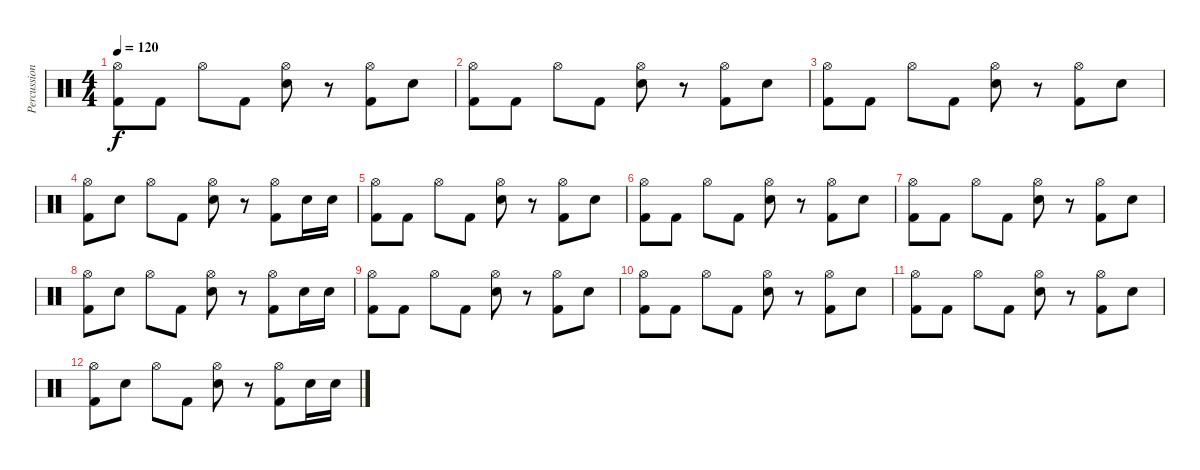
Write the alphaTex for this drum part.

\track ("Percussion" "Percussion") {instrument percussion}
\staff {score}
\articulation defaults
\ts (4 4)
\tempo 120
\clef neutral
\ks c
("Hi-Hat (open)" "Kick (hit) 2").8{dy f volume 13} "Kick (hit) 2".8 "Hi-Hat (open)".8 "Kick (hit) 2".8 ("Hi-Hat (open)" "Snare (hit) 2").8 r.8 ("Hi-Hat (open)" "Kick (hit) 2").8 "Snare (hit) 2".8 |
("Hi-Hat (open)" "Kick (hit) 2").8 "Kick (hit) 2".8 "Hi-Hat (open)".8 "Kick (hit) 2".8 ("Hi-Hat (open)" "Snare (hit) 2").8 r.8 ("Hi-Hat (open)" "Kick (hit) 2").8 "Snare (hit) 2".8 |
("Hi-Hat (open)" "Kick (hit) 2").8 "Kick (hit) 2".8 "Hi-Hat (open)".8 "Kick (hit) 2".8 ("Hi-Hat (open)" "Snare (hit) 2").8 r.8 ("Hi-Hat (open)" "Kick (hit) 2").8 "Snare (hit) 2".8 |
("Hi-Hat (open)" "Kick (hit) 2").8 "Snare (hit) 2".8 "Hi-Hat (open)".8 "Kick (hit) 2".8 ("Hi-Hat (open)" "Snare (hit) 2").8 r.8 ("Hi-Hat (open)" "Kick (hit) 2").8 "Snare (hit) 2".16 "Snare (hit) 2".16 |
("Hi-Hat (open)" "Kick (hit) 2").8{volume 13} "Kick (hit) 2".8 "Hi-Hat (open)".8 "Kick (hit) 2".8 ("Hi-Hat (open)" "Snare (hit) 2").8 r.8 ("Hi-Hat (open)" "Kick (hit) 2").8 "Snare (hit) 2".8 |
("Hi-Hat (open)" "Kick (hit) 2").8 "Kick (hit) 2".8 "Hi-Hat (open)".8 "Kick (hit) 2".8 ("Hi-Hat (open)" "Snare (hit) 2").8 r.8 ("Hi-Hat (open)" "Kick (hit) 2").8 "Snare (hit) 2".8 |
("Hi-Hat (open)" "Kick (hit) 2").8 "Kick (hit) 2".8 "Hi-Hat (open)".8 "Kick (hit) 2".8 ("Hi-Hat (open)" "Snare (hit) 2").8 r.8 ("Hi-Hat (open)" "Kick (hit) 2").8 "Snare (hit) 2".8 |
("Hi-Hat (open)" "Kick (hit) 2").8 "Snare (hit) 2".8 "Hi-Hat (open)".8 "Kick (hit) 2".8 ("Hi-Hat (open)" "Snare (hit) 2").8 r.8 ("Hi-Hat (open)" "Kick (hit) 2").8 "Snare (hit) 2".16 "Snare (hit) 2".16 |
("Hi-Hat (open)" "Kick (hit) 2").8{volume 13} "Kick (hit) 2".8 "Hi-Hat (open)".8 "Kick (hit) 2".8 ("Hi-Hat (open)" "Snare (hit) 2").8 r.8 ("Hi-Hat (open)" "Kick (hit) 2").8 "Snare (hit) 2".8 |
("Hi-Hat (open)" "Kick (hit) 2").8 "Kick (hit) 2".8 "Hi-Hat (open)".8 "Kick (hit) 2".8 ("Hi-Hat (open)" "Snare (hit) 2").8 r.8 ("Hi-Hat (open)" "Kick (hit) 2").8 "Snare (hit) 2".8 |
("Hi-Hat (open)" "Kick (hit) 2").8 "Kick (hit) 2".8 "Hi-Hat (open)".8 "Kick (hit) 2".8 ("Hi-Hat (open)" "Snare (hit) 2").8 r.8 ("Hi-Hat (open)" "Kick (hit) 2").8 "Snare (hit) 2".8 |
("Hi-Hat (open)" "Kick (hit) 2").8 "Snare (hit) 2".8 "Hi-Hat (open)".8 "Kick (hit) 2".8 ("Hi-Hat (open)" "Snare (hit) 2").8 r.8 ("Hi-Hat (open)" "Kick (hit) 2").8 "Snare (hit) 2".16 "Snare (hit) 2".16
